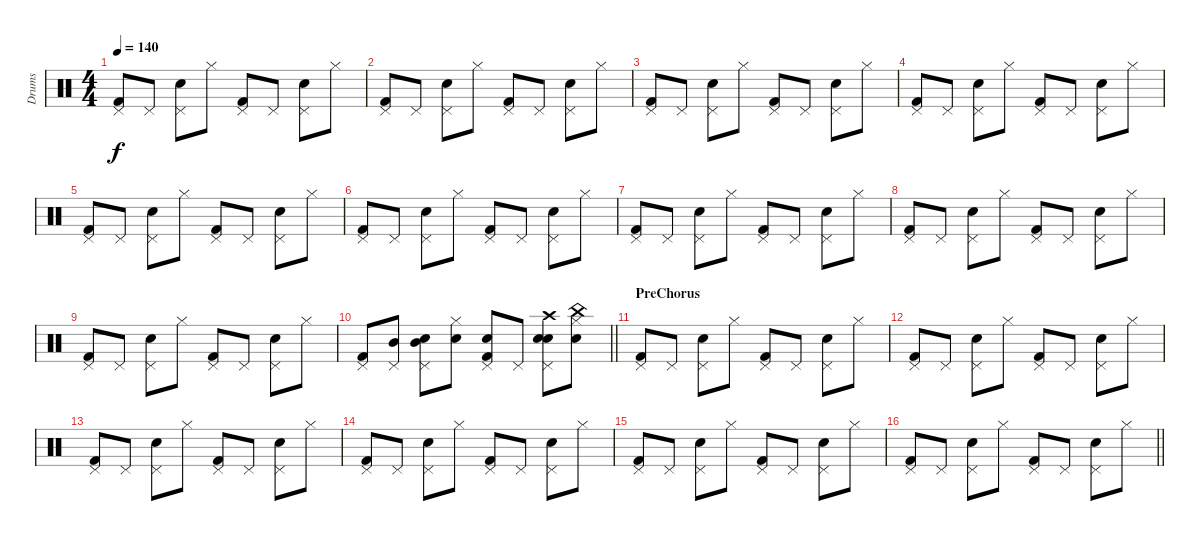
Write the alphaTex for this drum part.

\track ("Drums" "Drums") {instrument percussion}
\staff {score}
\articulation defaults
\ts (4 4)
\tempo 140
\clef neutral
\ks c
("Kick (hit) 2" "Pedal Hi-Hat (hit)").8{dy f} "Pedal Hi-Hat (hit)".8 ("Snare (hit) 2" "Pedal Hi-Hat (hit)").8 "Hi-Hat (closed)".8 ("Kick (hit) 2" "Pedal Hi-Hat (hit)").8 "Pedal Hi-Hat (hit)".8 ("Snare (hit) 2" "Pedal Hi-Hat (hit)").8 "Hi-Hat (closed)".8 |
("Kick (hit) 2" "Pedal Hi-Hat (hit)").8 "Pedal Hi-Hat (hit)".8 ("Snare (hit) 2" "Pedal Hi-Hat (hit)").8 "Hi-Hat (closed)".8 ("Kick (hit) 2" "Pedal Hi-Hat (hit)").8 "Pedal Hi-Hat (hit)".8 ("Snare (hit) 2" "Pedal Hi-Hat (hit)").8 "Hi-Hat (closed)".8 |
("Kick (hit) 2" "Pedal Hi-Hat (hit)").8 "Pedal Hi-Hat (hit)".8 ("Snare (hit) 2" "Pedal Hi-Hat (hit)").8 "Hi-Hat (closed)".8 ("Kick (hit) 2" "Pedal Hi-Hat (hit)").8 "Pedal Hi-Hat (hit)".8 ("Snare (hit) 2" "Pedal Hi-Hat (hit)").8 "Hi-Hat (closed)".8 |
("Kick (hit) 2" "Pedal Hi-Hat (hit)").8 "Pedal Hi-Hat (hit)".8 ("Snare (hit) 2" "Pedal Hi-Hat (hit)").8 "Hi-Hat (closed)".8 ("Kick (hit) 2" "Pedal Hi-Hat (hit)").8 "Pedal Hi-Hat (hit)".8 ("Snare (hit) 2" "Pedal Hi-Hat (hit)").8 "Hi-Hat (closed)".8 |
("Kick (hit) 2" "Pedal Hi-Hat (hit)").8 "Pedal Hi-Hat (hit)".8 ("Snare (hit) 2" "Pedal Hi-Hat (hit)").8 "Hi-Hat (closed)".8 ("Kick (hit) 2" "Pedal Hi-Hat (hit)").8 "Pedal Hi-Hat (hit)".8 ("Snare (hit) 2" "Pedal Hi-Hat (hit)").8 "Hi-Hat (closed)".8 |
("Kick (hit) 2" "Pedal Hi-Hat (hit)").8 "Pedal Hi-Hat (hit)".8 ("Snare (hit) 2" "Pedal Hi-Hat (hit)").8 "Hi-Hat (closed)".8 ("Kick (hit) 2" "Pedal Hi-Hat (hit)").8 "Pedal Hi-Hat (hit)".8 ("Snare (hit) 2" "Pedal Hi-Hat (hit)").8 "Hi-Hat (closed)".8 |
("Kick (hit) 2" "Pedal Hi-Hat (hit)").8 "Pedal Hi-Hat (hit)".8 ("Snare (hit) 2" "Pedal Hi-Hat (hit)").8 "Hi-Hat (closed)".8 ("Kick (hit) 2" "Pedal Hi-Hat (hit)").8 "Pedal Hi-Hat (hit)".8 ("Snare (hit) 2" "Pedal Hi-Hat (hit)").8 "Hi-Hat (closed)".8 |
("Kick (hit) 2" "Pedal Hi-Hat (hit)").8 "Pedal Hi-Hat (hit)".8 ("Snare (hit) 2" "Pedal Hi-Hat (hit)").8 "Hi-Hat (closed)".8 ("Kick (hit) 2" "Pedal Hi-Hat (hit)").8 "Pedal Hi-Hat (hit)".8 ("Snare (hit) 2" "Pedal Hi-Hat (hit)").8 "Hi-Hat (closed)".8 |
("Kick (hit) 2" "Pedal Hi-Hat (hit)").8 "Pedal Hi-Hat (hit)".8 ("Snare (hit) 2" "Pedal Hi-Hat (hit)").8 "Hi-Hat (closed)".8 ("Kick (hit) 2" "Pedal Hi-Hat (hit)").8 "Pedal Hi-Hat (hit)".8 ("Snare (hit) 2" "Pedal Hi-Hat (hit)").8 "Hi-Hat (closed)".8 |
\barLineRight lightlight
("Kick (hit) 2" "Pedal Hi-Hat (hit)").8 ("Mid Tom (hit)" "Pedal Hi-Hat (hit)").8 ("Snare (hit) 2" "Mid Tom (hit)" "Pedal Hi-Hat (hit)").8 ("Snare (hit) 2" "Hi-Hat (closed)").8 ("Kick (hit) 2" "Snare (hit) 2" "Pedal Hi-Hat (hit)").8 "Pedal Hi-Hat (hit)".8 ("Snare (hit) 2" "Snare (hit) 2" "Pedal Hi-Hat (hit)" "Crash high (hit)").8 ("Snare (hit) 2" "Hi-Hat (closed)" "China (hit)").8 |
\section ("" "PreChorus")
("Kick (hit) 2" "Pedal Hi-Hat (hit)").8 "Pedal Hi-Hat (hit)".8 ("Snare (hit) 2" "Pedal Hi-Hat (hit)").8 "Hi-Hat (closed)".8 ("Kick (hit) 2" "Pedal Hi-Hat (hit)").8 "Pedal Hi-Hat (hit)".8 ("Snare (hit) 2" "Pedal Hi-Hat (hit)").8 "Hi-Hat (closed)".8 |
("Kick (hit) 2" "Pedal Hi-Hat (hit)").8 "Pedal Hi-Hat (hit)".8 ("Snare (hit) 2" "Pedal Hi-Hat (hit)").8 "Hi-Hat (closed)".8 ("Kick (hit) 2" "Pedal Hi-Hat (hit)").8 "Pedal Hi-Hat (hit)".8 ("Snare (hit) 2" "Pedal Hi-Hat (hit)").8 "Hi-Hat (closed)".8 |
("Kick (hit) 2" "Pedal Hi-Hat (hit)").8 "Pedal Hi-Hat (hit)".8 ("Snare (hit) 2" "Pedal Hi-Hat (hit)").8 "Hi-Hat (closed)".8 ("Kick (hit) 2" "Pedal Hi-Hat (hit)").8 "Pedal Hi-Hat (hit)".8 ("Snare (hit) 2" "Pedal Hi-Hat (hit)").8 "Hi-Hat (closed)".8 |
("Kick (hit) 2" "Pedal Hi-Hat (hit)").8 "Pedal Hi-Hat (hit)".8 ("Snare (hit) 2" "Pedal Hi-Hat (hit)").8 "Hi-Hat (closed)".8 ("Kick (hit) 2" "Pedal Hi-Hat (hit)").8 "Pedal Hi-Hat (hit)".8 ("Snare (hit) 2" "Pedal Hi-Hat (hit)").8 "Hi-Hat (closed)".8 |
("Kick (hit) 2" "Pedal Hi-Hat (hit)").8 "Pedal Hi-Hat (hit)".8 ("Snare (hit) 2" "Pedal Hi-Hat (hit)").8 "Hi-Hat (closed)".8 ("Kick (hit) 2" "Pedal Hi-Hat (hit)").8 "Pedal Hi-Hat (hit)".8 ("Snare (hit) 2" "Pedal Hi-Hat (hit)").8 "Hi-Hat (closed)".8 |
\barLineRight lightlight
("Kick (hit) 2" "Pedal Hi-Hat (hit)").8 "Pedal Hi-Hat (hit)".8 ("Snare (hit) 2" "Pedal Hi-Hat (hit)").8 "Hi-Hat (closed)".8 ("Kick (hit) 2" "Pedal Hi-Hat (hit)").8 "Pedal Hi-Hat (hit)".8 ("Snare (hit) 2" "Pedal Hi-Hat (hit)").8 "Hi-Hat (closed)".8
